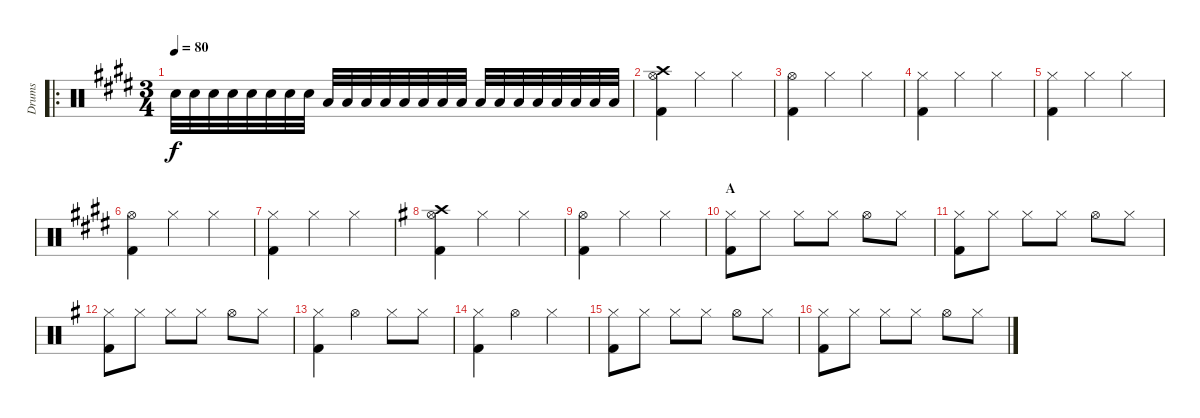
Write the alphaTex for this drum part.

\track ("Drums" "Drums") {instrument percussion}
\staff {score}
\articulation defaults
\ro
\ts (3 4)
\tempo 80
\clef neutral
\ks e "Electric Snare (hit)".32{dy f} "Electric Snare (hit)".32 "Electric Snare (hit)".32 "Electric Snare (hit)".32 "Electric Snare (hit)".32 "Electric Snare (hit)".32 "Electric Snare (hit)".32 "Electric Snare (hit)".32 "Low Tom (hit)".32 "Low Tom (hit)".32 "Low Tom (hit)".32 "Low Tom (hit)".32 "Low Tom (hit)".32 "Low Tom (hit)".32 "Low Tom (hit)".32 "Low Tom (hit)".32 "Low Floor Tom (hit)".32 "Low Floor Tom (hit)".32 "Low Floor Tom (hit)".32 "Low Floor Tom (hit)".32 "Low Floor Tom (hit)".32 "Low Floor Tom (hit)".32 "Low Floor Tom (hit)".32 "Low Floor Tom (hit)".32
|
("Hi-Hat (open)" "Crash high (hit)" "Kick (hit) 2").4 "Hi-Hat (closed)".4 "Hi-Hat (closed)".4 |
("Hi-Hat (open)" "Kick (hit) 2").4 "Hi-Hat (closed)".4 "Hi-Hat (closed)".4 |
("Hi-Hat (closed)" "Kick (hit) 2").4 "Hi-Hat (closed)".4 "Hi-Hat (closed)".4 |
("Hi-Hat (closed)" "Kick (hit) 2").4 "Hi-Hat (closed)".4 "Hi-Hat (closed)".4 |
("Hi-Hat (open)" "Kick (hit) 2").4 "Hi-Hat (closed)".4 "Hi-Hat (closed)".4 |
("Hi-Hat (closed)" "Kick (hit) 2").4 "Hi-Hat (closed)".4 "Hi-Hat (closed)".4 |
\ks g
("Hi-Hat (open)" "Crash high (hit)" "Kick (hit) 2").4 "Hi-Hat (closed)".4 "Hi-Hat (closed)".4 |
("Hi-Hat (open)" "Kick (hit) 2").4 "Hi-Hat (closed)".4 "Hi-Hat (closed)".4 |
\section ("" "A")
("Hi-Hat (closed)" "Kick (hit) 2").8 "Hi-Hat (closed)".8 "Hi-Hat (closed)".8 "Hi-Hat (closed)".8 "Hi-Hat (open)".8 "Hi-Hat (closed)".8 |
("Hi-Hat (closed)" "Kick (hit) 2").8 "Hi-Hat (closed)".8 "Hi-Hat (closed)".8 "Hi-Hat (closed)".8 "Hi-Hat (open)".8 "Hi-Hat (closed)".8 |
("Hi-Hat (closed)" "Kick (hit) 2").8 "Hi-Hat (closed)".8 "Hi-Hat (closed)".8 "Hi-Hat (closed)".8 "Hi-Hat (open)".8 "Hi-Hat (closed)".8 |
("Hi-Hat (closed)" "Kick (hit) 2").4 "Hi-Hat (open)".4 "Hi-Hat (closed)".8 "Hi-Hat (closed)".8 |
("Hi-Hat (closed)" "Kick (hit) 2").4 "Hi-Hat (open)".4 "Hi-Hat (closed)".4 |
("Hi-Hat (closed)" "Kick (hit) 2").8 "Hi-Hat (closed)".8 "Hi-Hat (closed)".8 "Hi-Hat (closed)".8 "Hi-Hat (open)".8 "Hi-Hat (closed)".8 |
("Hi-Hat (closed)" "Kick (hit) 2").8 "Hi-Hat (closed)".8 "Hi-Hat (closed)".8 "Hi-Hat (closed)".8 "Hi-Hat (open)".8 "Hi-Hat (closed)".8
